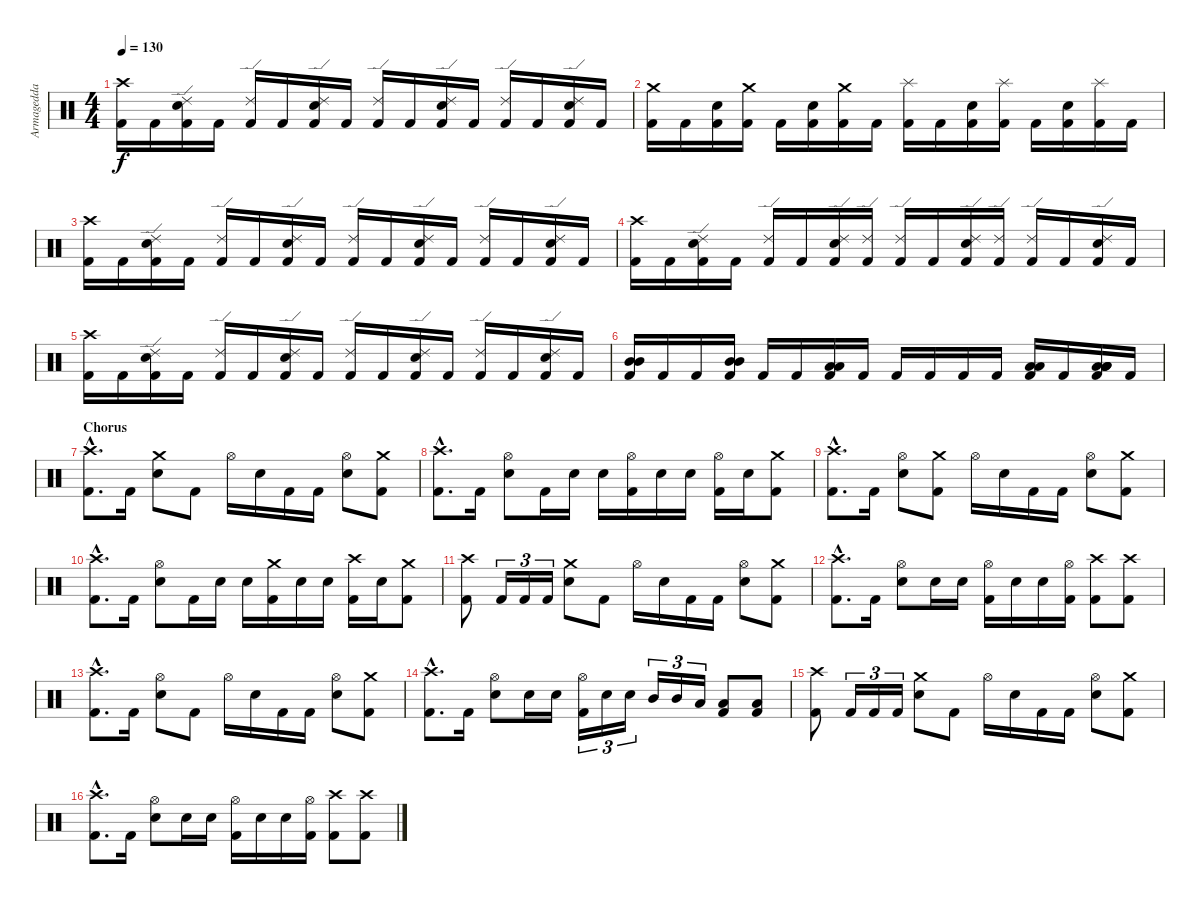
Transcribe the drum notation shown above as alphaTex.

\track ("Armagedda" "Armagedda") {instrument percussion}
\staff {score}
\articulation defaults
\ts (4 4)
\tempo 130
\clef neutral
\ks c
("Crash high (hit)" "Kick (hit) 2").16{dy f} "Kick (hit) 2".16 ("Ride (edge) 2" "Electric Snare (hit)" "Kick (hit) 2").16 "Kick (hit) 2".16 ("Ride (edge) 2" "Kick (hit) 2").16 "Kick (hit) 2".16 ("Ride (edge) 2" "Electric Snare (hit)" "Kick (hit) 2").16 "Kick (hit) 2".16 ("Ride (edge) 2" "Kick (hit) 2").16 "Kick (hit) 2".16 ("Ride (edge) 2" "Electric Snare (hit)" "Kick (hit) 2").16 "Kick (hit) 2".16 ("Ride (edge) 2" "Kick (hit) 2").16 "Kick (hit) 2".16 ("Ride (edge) 2" "Electric Snare (hit)" "Kick (hit) 2").16 "Kick (hit) 2".16 |
("Crash medium (hit)" "Kick (hit) 2").16 "Kick (hit) 2".16 ("Electric Snare (hit)" "Kick (hit) 2").16 ("Crash medium (hit)" "Kick (hit) 2").16 "Kick (hit) 2".16 ("Electric Snare (hit)" "Kick (hit) 2").16 ("Crash medium (hit)" "Kick (hit) 2").16 "Kick (hit) 2".16 ("Splash (hit)" "Kick (hit) 2").16 "Kick (hit) 2".16 ("Electric Snare (hit)" "Kick (hit) 2").16 ("Splash (hit)" "Kick (hit) 2").16 "Kick (hit) 2".16 ("Electric Snare (hit)" "Kick (hit) 2").16 ("Splash (hit)" "Kick (hit) 2").16 "Kick (hit) 2".16 |
("Crash high (hit)" "Kick (hit) 2").16 "Kick (hit) 2".16 ("Ride (edge) 2" "Electric Snare (hit)" "Kick (hit) 2").16 "Kick (hit) 2".16 ("Ride (edge) 2" "Kick (hit) 2").16 "Kick (hit) 2".16 ("Ride (edge) 2" "Electric Snare (hit)" "Kick (hit) 2").16 "Kick (hit) 2".16 ("Ride (edge) 2" "Kick (hit) 2").16 "Kick (hit) 2".16 ("Ride (edge) 2" "Electric Snare (hit)" "Kick (hit) 2").16 "Kick (hit) 2".16 ("Ride (edge) 2" "Kick (hit) 2").16 "Kick (hit) 2".16 ("Ride (edge) 2" "Electric Snare (hit)" "Kick (hit) 2").16 "Kick (hit) 2".16 |
("Crash high (hit)" "Kick (hit) 2").16 "Kick (hit) 2".16 ("Ride (edge) 2" "Electric Snare (hit)" "Kick (hit) 2").16 "Kick (hit) 2".16 ("Ride (edge) 2" "Kick (hit) 2").16 "Kick (hit) 2".16 ("Ride (edge) 2" "Electric Snare (hit)" "Kick (hit) 2").16 ("Ride (edge) 2" "Kick (hit) 2").16 ("Ride (edge) 2" "Kick (hit) 2").16 "Kick (hit) 2".16 ("Ride (edge) 2" "Electric Snare (hit)" "Kick (hit) 2").16 ("Ride (edge) 2" "Kick (hit) 2").16 ("Ride (edge) 2" "Kick (hit) 2").16 "Kick (hit) 2".16 ("Ride (edge) 2" "Electric Snare (hit)" "Kick (hit) 2").16 "Kick (hit) 2".16 |
("Crash high (hit)" "Kick (hit) 2").16 "Kick (hit) 2".16 ("Ride (edge) 2" "Electric Snare (hit)" "Kick (hit) 2").16 "Kick (hit) 2".16 ("Ride (edge) 2" "Kick (hit) 2").16 "Kick (hit) 2".16 ("Ride (edge) 2" "Electric Snare (hit)" "Kick (hit) 2").16 "Kick (hit) 2".16 ("Ride (edge) 2" "Kick (hit) 2").16 "Kick (hit) 2".16 ("Ride (edge) 2" "Electric Snare (hit)" "Kick (hit) 2").16 "Kick (hit) 2".16 ("Ride (edge) 2" "Kick (hit) 2").16 "Kick (hit) 2".16 ("Ride (edge) 2" "Electric Snare (hit)" "Kick (hit) 2").16 "Kick (hit) 2".16 |
("Mid Tom (hit)" "Mid Tom (hit)" "Kick (hit) 2").16 "Kick (hit) 2".16 "Kick (hit) 2".16 ("Mid Tom (hit)" "Mid Tom (hit)" "Kick (hit) 2").16 "Kick (hit) 2".16 "Kick (hit) 2".16 ("Low Tom (hit)" "Low Tom (hit)" "Kick (hit) 2").16 "Kick (hit) 2".16 "Kick (hit) 2".16 "Kick (hit) 2".16 "Kick (hit) 2".16 "Kick (hit) 2".16 ("Low Tom (hit)" "Low Tom (hit)" "Kick (hit) 2").16 "Kick (hit) 2".16 ("Low Tom (hit)" "Low Tom (hit)" "Low Floor Tom (hit)" "Low Floor Tom (hit)" "Kick (hit) 2").16 "Kick (hit) 2".16 |
\section ("" "Chorus")
("Crash high (hit)"{hac} "Kick (hit) 2"{hac}).8{d} "Kick (hit) 2".16 ("Crash medium (hit)" "Electric Snare (hit)").8 "Kick (hit) 2".8 "Hi-Hat (open)".16 "Electric Snare (hit)".16 "Kick (hit) 2".16 "Kick (hit) 2".16 ("Hi-Hat (open)" "Electric Snare (hit)").8 ("Crash medium (hit)" "Kick (hit) 2").8 |
("Crash high (hit)"{hac} "Kick (hit) 2"{hac}).8{d} "Kick (hit) 2".16 ("Hi-Hat (open)" "Electric Snare (hit)").8 "Kick (hit) 2".16 "Electric Snare (hit)".16 "Electric Snare (hit)".16 ("Hi-Hat (open)" "Kick (hit) 2").16 "Electric Snare (hit)".16 "Electric Snare (hit)".16 ("Hi-Hat (open)" "Kick (hit) 2").16 "Electric Snare (hit)".16 ("Crash medium (hit)" "Kick (hit) 2").8 |
("Crash high (hit)"{hac} "Kick (hit) 2"{hac}).8{d} "Kick (hit) 2".16 ("Hi-Hat (open)" "Electric Snare (hit)").8 ("Crash medium (hit)" "Kick (hit) 2").8 "Hi-Hat (open)".16 "Electric Snare (hit)".16 "Kick (hit) 2".16 "Kick (hit) 2".16 ("Hi-Hat (open)" "Electric Snare (hit)").8 ("Crash medium (hit)" "Kick (hit) 2").8 |
("Crash high (hit)"{hac} "Kick (hit) 2"{hac}).8{d} "Kick (hit) 2".16 ("Hi-Hat (open)" "Electric Snare (hit)").8 "Kick (hit) 2".16 "Electric Snare (hit)".16 "Electric Snare (hit)".16 ("Crash medium (hit)" "Kick (hit) 2").16 "Electric Snare (hit)".16 "Electric Snare (hit)".16 ("Crash high (hit)" "Kick (hit) 2").16 "Electric Snare (hit)".16 ("Crash medium (hit)" "Kick (hit) 2").8 |
("Crash high (hit)" "Kick (hit) 2").8 "Kick (hit) 2".16{tu (3 2)} "Kick (hit) 2".16{tu (3 2)} "Kick (hit) 2".16{tu (3 2)} ("Crash medium (hit)" "Electric Snare (hit)").8 "Kick (hit) 2".8 "Hi-Hat (open)".16 "Electric Snare (hit)".16 "Kick (hit) 2".16 "Kick (hit) 2".16 ("Hi-Hat (open)" "Electric Snare (hit)").8 ("Crash medium (hit)" "Kick (hit) 2").8 |
("Crash high (hit)"{hac} "Kick (hit) 2"{hac}).8{d} "Kick (hit) 2".16 ("Hi-Hat (open)" "Electric Snare (hit)").8 "Electric Snare (hit)".16 "Electric Snare (hit)".16 ("Hi-Hat (open)" "Kick (hit) 2").16 "Electric Snare (hit)".16 "Electric Snare (hit)".16 ("Hi-Hat (open)" "Kick (hit) 2").16 ("Crash high (hit)" "Kick (hit) 2").8 ("Crash high (hit)" "Kick (hit) 2").8 |
("Crash high (hit)"{hac} "Kick (hit) 2"{hac}).8{d} "Kick (hit) 2".16 ("Hi-Hat (open)" "Electric Snare (hit)").8 "Kick (hit) 2".8 "Hi-Hat (open)".16 "Electric Snare (hit)".16 "Kick (hit) 2".16 "Kick (hit) 2".16 ("Hi-Hat (open)" "Electric Snare (hit)").8 ("Crash medium (hit)" "Kick (hit) 2").8 |
("Crash high (hit)"{hac} "Kick (hit) 2"{hac}).8{d} "Kick (hit) 2".16 ("Hi-Hat (open)" "Electric Snare (hit)").8 "Electric Snare (hit)".16 "Electric Snare (hit)".16 ("Hi-Hat (open)" "Kick (hit) 2").16{tu (3 2)} "Electric Snare (hit)".16{tu (3 2)} "Electric Snare (hit)".16{tu (3 2)} "Mid Tom (hit)".16{tu (3 2)} "Mid Tom (hit)".16{tu (3 2)} "Low Tom (hit)".16{tu (3 2)} ("Low Floor Tom (hit)" "Kick (hit) 2").8 ("Low Floor Tom (hit)" "Kick (hit) 2").8 |
("Crash high (hit)" "Kick (hit) 2").8 "Kick (hit) 2".16{tu (3 2)} "Kick (hit) 2".16{tu (3 2)} "Kick (hit) 2".16{tu (3 2)} ("Crash medium (hit)" "Electric Snare (hit)").8 "Kick (hit) 2".8 "Hi-Hat (open)".16 "Electric Snare (hit)".16 "Kick (hit) 2".16 "Kick (hit) 2".16 ("Hi-Hat (open)" "Electric Snare (hit)").8 ("Crash medium (hit)" "Kick (hit) 2").8 |
("Crash high (hit)"{hac} "Kick (hit) 2"{hac}).8{d} "Kick (hit) 2".16 ("Hi-Hat (open)" "Electric Snare (hit)").8 "Electric Snare (hit)".16 "Electric Snare (hit)".16 ("Hi-Hat (open)" "Kick (hit) 2").16 "Electric Snare (hit)".16 "Electric Snare (hit)".16 ("Hi-Hat (open)" "Kick (hit) 2").16 ("Crash high (hit)" "Kick (hit) 2").8 ("Crash high (hit)" "Kick (hit) 2").8
